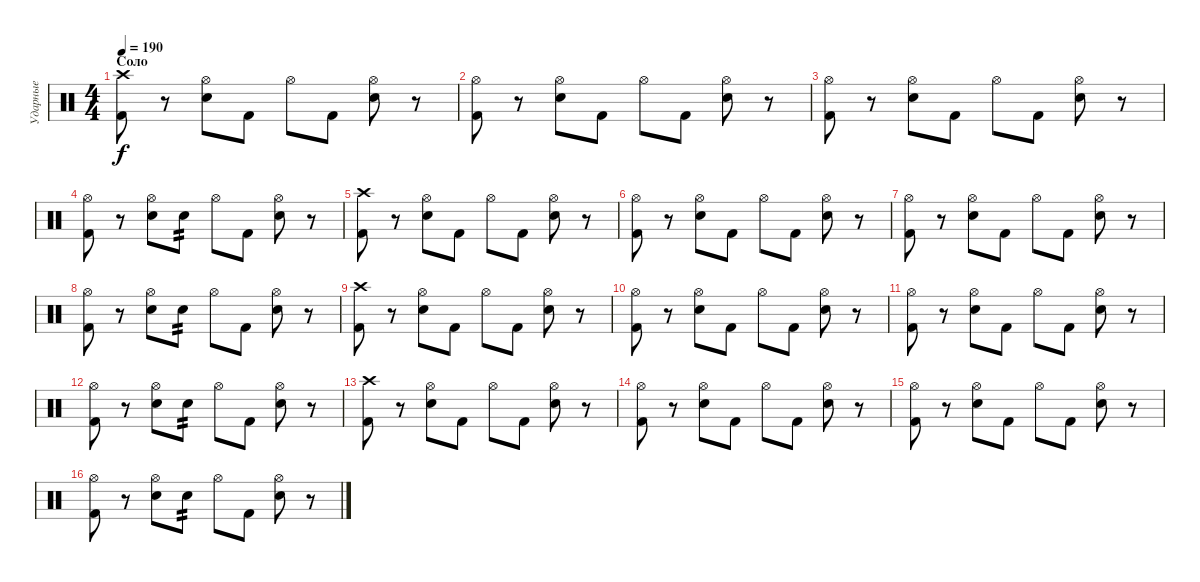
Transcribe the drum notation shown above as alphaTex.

\track ("Ударные" "Ударные") {instrument percussion}
\staff {score}
\articulation defaults
\ts (4 4)
\section ("" "Соло")
\tempo 190
\clef neutral
\ks c
("Crash high (hit)" "Kick (hit) 2").8{dy f} r.8 ("Hi-Hat (open)" "Electric Snare (hit)").8 "Kick (hit) 2".8 "Hi-Hat (open)".8 "Kick (hit) 2".8 ("Hi-Hat (open)" "Electric Snare (hit)").8 r.8 |
("Hi-Hat (open)" "Kick (hit) 2").8 r.8 ("Hi-Hat (open)" "Electric Snare (hit)").8 "Kick (hit) 2".8 "Hi-Hat (open)".8 "Kick (hit) 2".8 ("Hi-Hat (open)" "Electric Snare (hit)").8 r.8 |
("Hi-Hat (open)" "Kick (hit) 2").8 r.8 ("Hi-Hat (open)" "Electric Snare (hit)").8 "Kick (hit) 2".8 "Hi-Hat (open)".8 "Kick (hit) 2".8 ("Hi-Hat (open)" "Electric Snare (hit)").8 r.8 |
("Hi-Hat (open)" "Kick (hit) 2").8 r.8 ("Hi-Hat (open)" "Electric Snare (hit)").8 "Electric Snare (hit)".8{tp 2} "Hi-Hat (open)".8 "Kick (hit) 2".8 ("Hi-Hat (open)" "Electric Snare (hit)").8 r.8 |
("Crash high (hit)" "Kick (hit) 2").8 r.8 ("Hi-Hat (open)" "Electric Snare (hit)").8 "Kick (hit) 2".8 "Hi-Hat (open)".8 "Kick (hit) 2".8 ("Hi-Hat (open)" "Electric Snare (hit)").8 r.8 |
("Hi-Hat (open)" "Kick (hit) 2").8 r.8 ("Hi-Hat (open)" "Electric Snare (hit)").8 "Kick (hit) 2".8 "Hi-Hat (open)".8 "Kick (hit) 2".8 ("Hi-Hat (open)" "Electric Snare (hit)").8 r.8 |
("Hi-Hat (open)" "Kick (hit) 2").8 r.8 ("Hi-Hat (open)" "Electric Snare (hit)").8 "Kick (hit) 2".8 "Hi-Hat (open)".8 "Kick (hit) 2".8 ("Hi-Hat (open)" "Electric Snare (hit)").8 r.8 |
("Hi-Hat (open)" "Kick (hit) 2").8 r.8 ("Hi-Hat (open)" "Electric Snare (hit)").8 "Electric Snare (hit)".8{tp 2} "Hi-Hat (open)".8 "Kick (hit) 2".8 ("Hi-Hat (open)" "Electric Snare (hit)").8 r.8 |
("Crash high (hit)" "Kick (hit) 2").8 r.8 ("Hi-Hat (open)" "Electric Snare (hit)").8 "Kick (hit) 2".8 "Hi-Hat (open)".8 "Kick (hit) 2".8 ("Hi-Hat (open)" "Electric Snare (hit)").8 r.8 |
("Hi-Hat (open)" "Kick (hit) 2").8 r.8 ("Hi-Hat (open)" "Electric Snare (hit)").8 "Kick (hit) 2".8 "Hi-Hat (open)".8 "Kick (hit) 2".8 ("Hi-Hat (open)" "Electric Snare (hit)").8 r.8 |
("Hi-Hat (open)" "Kick (hit) 2").8 r.8 ("Hi-Hat (open)" "Electric Snare (hit)").8 "Kick (hit) 2".8 "Hi-Hat (open)".8 "Kick (hit) 2".8 ("Hi-Hat (open)" "Electric Snare (hit)").8 r.8 |
("Hi-Hat (open)" "Kick (hit) 2").8 r.8 ("Hi-Hat (open)" "Electric Snare (hit)").8 "Electric Snare (hit)".8{tp 2} "Hi-Hat (open)".8 "Kick (hit) 2".8 ("Hi-Hat (open)" "Electric Snare (hit)").8 r.8 |
("Crash high (hit)" "Kick (hit) 2").8 r.8 ("Hi-Hat (open)" "Electric Snare (hit)").8 "Kick (hit) 2".8 "Hi-Hat (open)".8 "Kick (hit) 2".8 ("Hi-Hat (open)" "Electric Snare (hit)").8 r.8 |
("Hi-Hat (open)" "Kick (hit) 2").8 r.8 ("Hi-Hat (open)" "Electric Snare (hit)").8 "Kick (hit) 2".8 "Hi-Hat (open)".8 "Kick (hit) 2".8 ("Hi-Hat (open)" "Electric Snare (hit)").8 r.8 |
("Hi-Hat (open)" "Kick (hit) 2").8 r.8 ("Hi-Hat (open)" "Electric Snare (hit)").8 "Kick (hit) 2".8 "Hi-Hat (open)".8 "Kick (hit) 2".8 ("Hi-Hat (open)" "Electric Snare (hit)").8 r.8 |
("Hi-Hat (open)" "Kick (hit) 2").8 r.8 ("Hi-Hat (open)" "Electric Snare (hit)").8 "Electric Snare (hit)".8{tp 2} "Hi-Hat (open)".8 "Kick (hit) 2".8 ("Hi-Hat (open)" "Electric Snare (hit)").8 r.8
